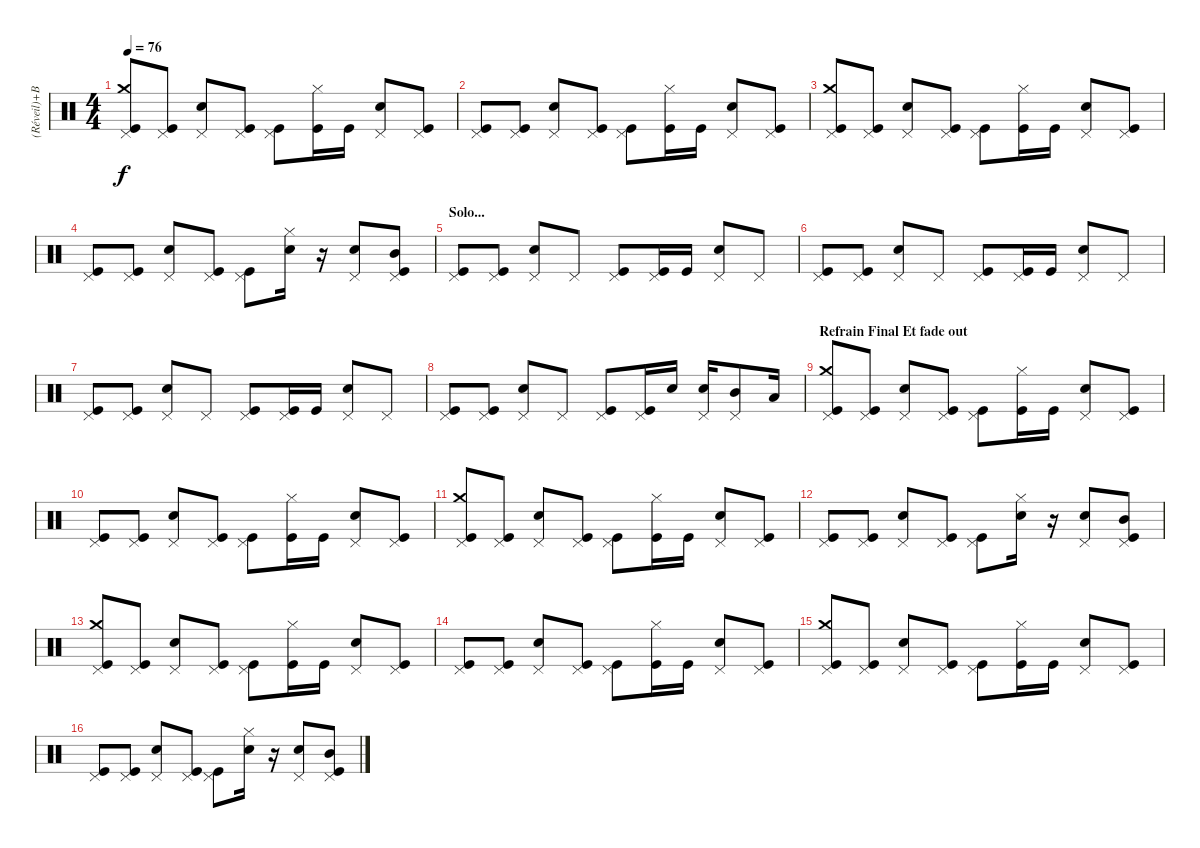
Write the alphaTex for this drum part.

\track ("(Réveil)+Batterie" "(Réveil)+B") {instrument percussion}
\staff {score}
\articulation defaults
\ts (4 4)
\tempo 76
\clef neutral
\ks c
("Pedal Hi-Hat (hit)" "Crash medium (hit)" "Kick (hit)").8{dy f volume 16} ("Pedal Hi-Hat (hit)" "Kick (hit)").8 ("Pedal Hi-Hat (hit)" "Electric Snare (hit)").8 ("Pedal Hi-Hat (hit)" "Kick (hit)").8 ("Pedal Hi-Hat (hit)" "Kick (hit)").8 ("Hi-Hat (closed)" "Kick (hit)").16 "Kick (hit)".16 ("Pedal Hi-Hat (hit)" "Electric Snare (hit)").8 ("Pedal Hi-Hat (hit)" "Kick (hit)").8 |
("Pedal Hi-Hat (hit)" "Kick (hit)").8 ("Pedal Hi-Hat (hit)" "Kick (hit)").8 ("Pedal Hi-Hat (hit)" "Electric Snare (hit)").8 ("Pedal Hi-Hat (hit)" "Kick (hit)").8 ("Pedal Hi-Hat (hit)" "Kick (hit)").8 ("Hi-Hat (closed)" "Kick (hit)").16 "Kick (hit)".16 ("Pedal Hi-Hat (hit)" "Electric Snare (hit)").8 ("Pedal Hi-Hat (hit)" "Kick (hit)").8 |
("Pedal Hi-Hat (hit)" "Crash medium (hit)" "Kick (hit)").8 ("Pedal Hi-Hat (hit)" "Kick (hit)").8 ("Pedal Hi-Hat (hit)" "Electric Snare (hit)").8 ("Pedal Hi-Hat (hit)" "Kick (hit)").8 ("Pedal Hi-Hat (hit)" "Kick (hit)").8 ("Hi-Hat (closed)" "Kick (hit)").16 "Kick (hit)".16 ("Pedal Hi-Hat (hit)" "Electric Snare (hit)").8 ("Pedal Hi-Hat (hit)" "Kick (hit)").8 |
("Pedal Hi-Hat (hit)" "Kick (hit)").8 ("Pedal Hi-Hat (hit)" "Kick (hit)").8 ("Pedal Hi-Hat (hit)" "Electric Snare (hit)").8 ("Pedal Hi-Hat (hit)" "Kick (hit)").8 ("Pedal Hi-Hat (hit)" "Kick (hit)").8 ("Hi-Hat (closed)" "Electric Snare (hit)").16 r.16 ("Pedal Hi-Hat (hit)" "Electric Snare (hit)").8 ("Pedal Hi-Hat (hit)" "Mid Tom (hit)" "Kick (hit)").8 |
\section ("" "Solo...")
("Pedal Hi-Hat (hit)" "Kick (hit)").8 ("Pedal Hi-Hat (hit)" "Kick (hit)").8 ("Pedal Hi-Hat (hit)" "Electric Snare (hit)").8 "Pedal Hi-Hat (hit)".8 ("Pedal Hi-Hat (hit)" "Kick (hit)").8 ("Pedal Hi-Hat (hit)" "Kick (hit)").16 "Kick (hit)".16 ("Pedal Hi-Hat (hit)" "Electric Snare (hit)").8 "Pedal Hi-Hat (hit)".8 |
("Pedal Hi-Hat (hit)" "Kick (hit)").8 ("Pedal Hi-Hat (hit)" "Kick (hit)").8 ("Pedal Hi-Hat (hit)" "Electric Snare (hit)").8 "Pedal Hi-Hat (hit)".8 ("Pedal Hi-Hat (hit)" "Kick (hit)").8 ("Pedal Hi-Hat (hit)" "Kick (hit)").16 "Kick (hit)".16 ("Pedal Hi-Hat (hit)" "Electric Snare (hit)").8 "Pedal Hi-Hat (hit)".8 |
("Pedal Hi-Hat (hit)" "Kick (hit)").8 ("Pedal Hi-Hat (hit)" "Kick (hit)").8 ("Pedal Hi-Hat (hit)" "Electric Snare (hit)").8 "Pedal Hi-Hat (hit)".8 ("Pedal Hi-Hat (hit)" "Kick (hit)").8 ("Pedal Hi-Hat (hit)" "Kick (hit)").16 "Kick (hit)".16 ("Pedal Hi-Hat (hit)" "Electric Snare (hit)").8 "Pedal Hi-Hat (hit)".8 |
("Pedal Hi-Hat (hit)" "Kick (hit)").8 ("Pedal Hi-Hat (hit)" "Kick (hit)").8 ("Pedal Hi-Hat (hit)" "Electric Snare (hit)").8 "Pedal Hi-Hat (hit)".8 ("Pedal Hi-Hat (hit)" "Kick (hit)").8 ("Pedal Hi-Hat (hit)" "Kick (hit)").16 "Electric Snare (hit)".16 ("Pedal Hi-Hat (hit)" "Electric Snare (hit)").16 ("Pedal Hi-Hat (hit)" "Mid Tom (hit)").8 "Low Tom (hit)".16 |
\section ("" "Refrain Final Et fade out")
("Pedal Hi-Hat (hit)" "Crash medium (hit)" "Kick (hit)").8{volume 16} ("Pedal Hi-Hat (hit)" "Kick (hit)").8 ("Pedal Hi-Hat (hit)" "Electric Snare (hit)").8 ("Pedal Hi-Hat (hit)" "Kick (hit)").8 ("Pedal Hi-Hat (hit)" "Kick (hit)").8 ("Hi-Hat (closed)" "Kick (hit)").16 "Kick (hit)".16 ("Pedal Hi-Hat (hit)" "Electric Snare (hit)").8 ("Pedal Hi-Hat (hit)" "Kick (hit)").8 |
("Pedal Hi-Hat (hit)" "Kick (hit)").8 ("Pedal Hi-Hat (hit)" "Kick (hit)").8 ("Pedal Hi-Hat (hit)" "Electric Snare (hit)").8 ("Pedal Hi-Hat (hit)" "Kick (hit)").8 ("Pedal Hi-Hat (hit)" "Kick (hit)").8 ("Hi-Hat (closed)" "Kick (hit)").16 "Kick (hit)".16 ("Pedal Hi-Hat (hit)" "Electric Snare (hit)").8 ("Pedal Hi-Hat (hit)" "Kick (hit)").8 |
("Pedal Hi-Hat (hit)" "Crash medium (hit)" "Kick (hit)").8 ("Pedal Hi-Hat (hit)" "Kick (hit)").8 ("Pedal Hi-Hat (hit)" "Electric Snare (hit)").8 ("Pedal Hi-Hat (hit)" "Kick (hit)").8 ("Pedal Hi-Hat (hit)" "Kick (hit)").8 ("Hi-Hat (closed)" "Kick (hit)").16 "Kick (hit)".16 ("Pedal Hi-Hat (hit)" "Electric Snare (hit)").8 ("Pedal Hi-Hat (hit)" "Kick (hit)").8 |
("Pedal Hi-Hat (hit)" "Kick (hit)").8 ("Pedal Hi-Hat (hit)" "Kick (hit)").8 ("Pedal Hi-Hat (hit)" "Electric Snare (hit)").8 ("Pedal Hi-Hat (hit)" "Kick (hit)").8 ("Pedal Hi-Hat (hit)" "Kick (hit)").8 ("Hi-Hat (closed)" "Electric Snare (hit)").16 r.16 ("Pedal Hi-Hat (hit)" "Electric Snare (hit)").8 ("Pedal Hi-Hat (hit)" "Mid Tom (hit)" "Kick (hit)").8 |
("Pedal Hi-Hat (hit)" "Crash medium (hit)" "Kick (hit)").8{volume 16} ("Pedal Hi-Hat (hit)" "Kick (hit)").8 ("Pedal Hi-Hat (hit)" "Electric Snare (hit)").8 ("Pedal Hi-Hat (hit)" "Kick (hit)").8 ("Pedal Hi-Hat (hit)" "Kick (hit)").8 ("Hi-Hat (closed)" "Kick (hit)").16 "Kick (hit)".16 ("Pedal Hi-Hat (hit)" "Electric Snare (hit)").8 ("Pedal Hi-Hat (hit)" "Kick (hit)").8 |
("Pedal Hi-Hat (hit)" "Kick (hit)").8 ("Pedal Hi-Hat (hit)" "Kick (hit)").8 ("Pedal Hi-Hat (hit)" "Electric Snare (hit)").8 ("Pedal Hi-Hat (hit)" "Kick (hit)").8 ("Pedal Hi-Hat (hit)" "Kick (hit)").8 ("Hi-Hat (closed)" "Kick (hit)").16 "Kick (hit)".16 ("Pedal Hi-Hat (hit)" "Electric Snare (hit)").8 ("Pedal Hi-Hat (hit)" "Kick (hit)").8 |
("Pedal Hi-Hat (hit)" "Crash medium (hit)" "Kick (hit)").8 ("Pedal Hi-Hat (hit)" "Kick (hit)").8 ("Pedal Hi-Hat (hit)" "Electric Snare (hit)").8 ("Pedal Hi-Hat (hit)" "Kick (hit)").8 ("Pedal Hi-Hat (hit)" "Kick (hit)").8 ("Hi-Hat (closed)" "Kick (hit)").16 "Kick (hit)".16 ("Pedal Hi-Hat (hit)" "Electric Snare (hit)").8 ("Pedal Hi-Hat (hit)" "Kick (hit)").8 |
("Pedal Hi-Hat (hit)" "Kick (hit)").8 ("Pedal Hi-Hat (hit)" "Kick (hit)").8 ("Pedal Hi-Hat (hit)" "Electric Snare (hit)").8 ("Pedal Hi-Hat (hit)" "Kick (hit)").8 ("Pedal Hi-Hat (hit)" "Kick (hit)").8 ("Hi-Hat (closed)" "Electric Snare (hit)").16 r.16 ("Pedal Hi-Hat (hit)" "Electric Snare (hit)").8 ("Pedal Hi-Hat (hit)" "Mid Tom (hit)" "Kick (hit)").8
